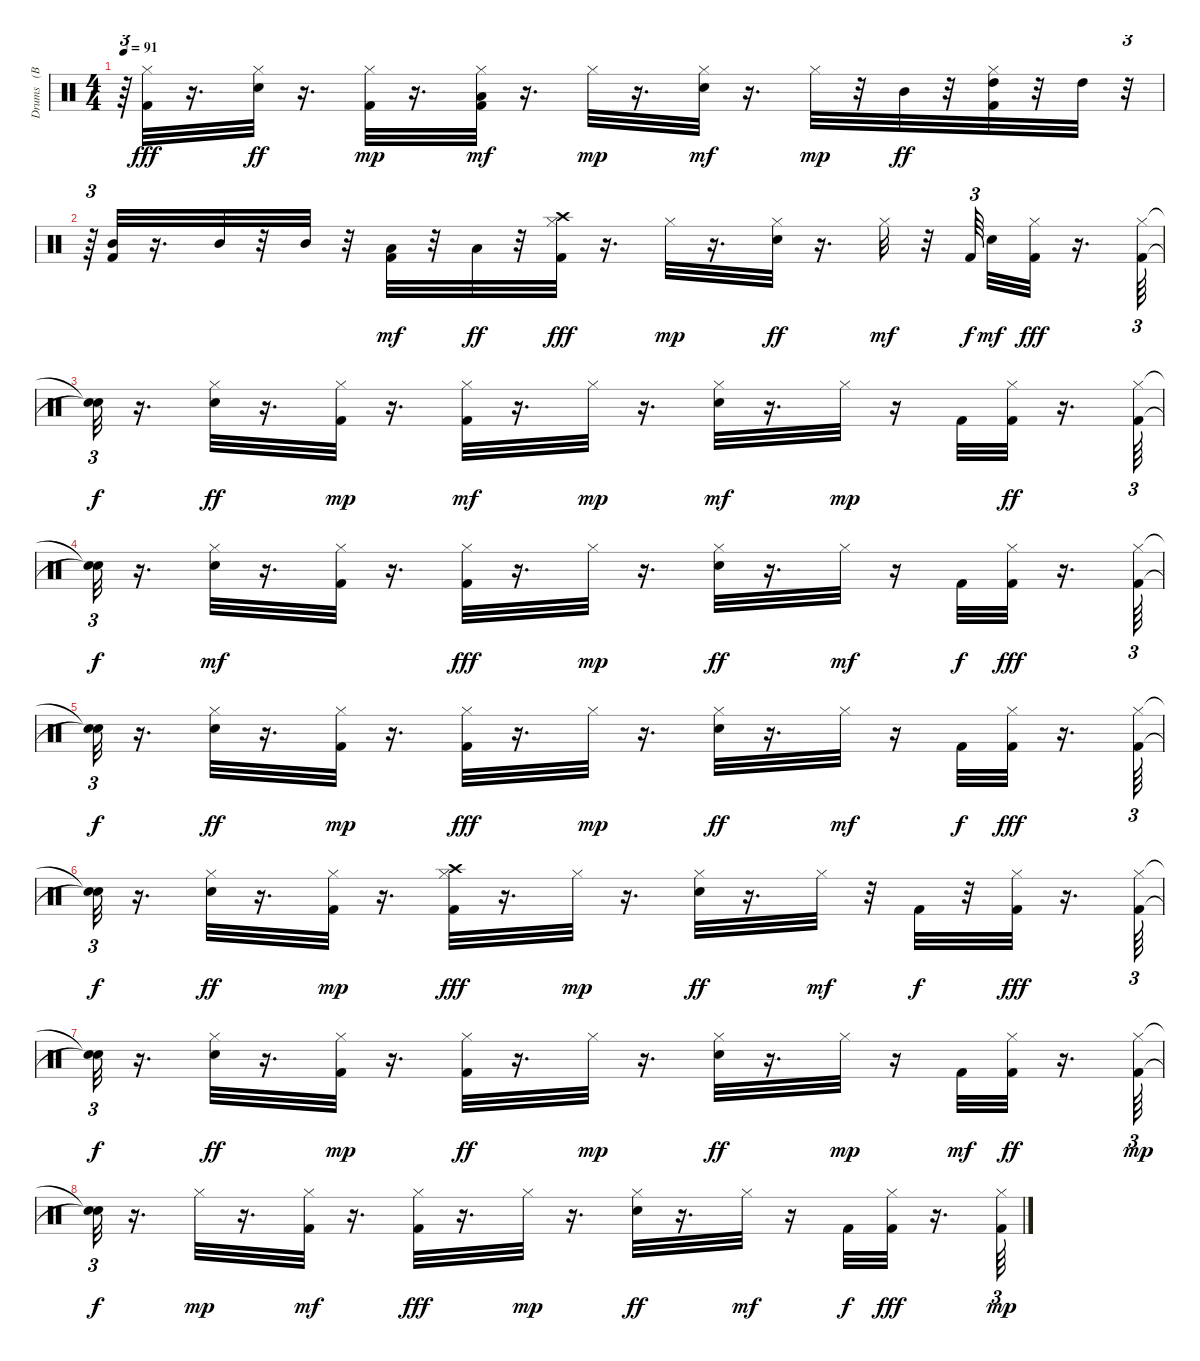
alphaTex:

\track ("Drums   (BB)" "Drums   (B") {instrument percussion}
\staff {score}
\articulation defaults
\ts (4 4)
\tempo 91
\clef neutral
\ks c
r.64{tu (3 2) dy fff} ("Hi-Hat (closed)" "Kick (hit) 2").32 r.16{d} ("Electric Snare (hit)" "Hi-Hat (closed)").32{dy ff} r.16{d} ("Kick (hit) 2" "Hi-Hat (closed)").32{dy mp} r.16{d} ("Kick (hit) 2" "Low Floor Tom (hit)" "Hi-Hat (closed)").32{dy mf} r.16{d} "Hi-Hat (closed)".32{dy mp} r.16{d} ("Hi-Hat (closed)" "Electric Snare (hit)").32{dy mf} r.16{d} "Hi-Hat (closed)".32{dy mp} r.32 "Mid Tom (hit)".32{dy ff} r.32 ("High Tom (hit)" "Hi-Hat (closed)" "Kick (hit) 2").32 r.32 "High Tom (hit)".32 r.32{tu (3 2)} |
r.64{tu (3 2)} ("Mid Tom (hit)" "Kick (hit) 2").32 r.16{d} "Mid Tom (hit)".32 r.32 "Mid Tom (hit)".32 r.32 ("Low Tom (hit)" "Kick (hit) 2").32{dy mf} r.32 "Low Floor Tom (hit)".32{dy ff} r.32 ("Hi-Hat (closed)" "Crash high (hit)" "Kick (hit) 2").32{dy fff} r.16{d} "Hi-Hat (closed)".32{dy mp} r.16{d} ("Electric Snare (hit)" "Hi-Hat (closed)").32{dy ff} r.16{d} "Hi-Hat (closed)".32{dy mf} r.32 "Kick (hit) 2".64{tu (3 2) dy f} "Electric Snare (hit)".32{dy mf} ("Hi-Hat (closed)" "Kick (hit) 2").32{dy fff} r.16{d} ("Hi-Hat (closed)" "Kick (hit) 2").64{tu (3 2)} |
("Snare (hit)"{t} "Snare (hit)"{t}).32{tu (3 2) dy f} r.16{d} ("Electric Snare (hit)" "Hi-Hat (closed)").32{dy ff} r.16{d} ("Hi-Hat (closed)" "Kick (hit) 2").32{dy mp} r.16{d} ("Kick (hit) 2" "Hi-Hat (closed)").32{dy mf} r.16{d} "Hi-Hat (closed)".32{dy mp} r.16{d} ("Hi-Hat (closed)" "Electric Snare (hit)").32{dy mf} r.16{d} "Hi-Hat (closed)".32{dy mp} r.16 "Kick (hit) 2".32 ("Hi-Hat (closed)" "Kick (hit) 2").32{dy ff} r.16{d} ("Hi-Hat (closed)" "Kick (hit) 2").64{tu (3 2)} |
("Snare (hit)"{t} "Snare (hit)"{t}).32{tu (3 2) dy f} r.16{d} ("Hi-Hat (closed)" "Electric Snare (hit)").32{dy mf} r.16{d} ("Hi-Hat (closed)" "Kick (hit) 2").32 r.16{d} ("Hi-Hat (closed)" "Kick (hit) 2").32{dy fff} r.16{d} "Hi-Hat (closed)".32{dy mp} r.16{d} ("Electric Snare (hit)" "Hi-Hat (closed)").32{dy ff} r.16{d} "Hi-Hat (closed)".32{dy mf} r.16 "Kick (hit) 2".32{dy f} ("Hi-Hat (closed)" "Kick (hit) 2").32{dy fff} r.16{d} ("Hi-Hat (closed)" "Kick (hit) 2").64{tu (3 2)} |
("Snare (hit)"{t} "Snare (hit)"{t}).32{tu (3 2) dy f} r.16{d} ("Electric Snare (hit)" "Hi-Hat (closed)").32{dy ff} r.16{d} ("Hi-Hat (closed)" "Kick (hit) 2").32{dy mp} r.16{d} ("Hi-Hat (closed)" "Kick (hit) 2").32{dy fff} r.16{d} "Hi-Hat (closed)".32{dy mp} r.16{d} ("Hi-Hat (closed)" "Electric Snare (hit)").32{dy ff} r.16{d} "Hi-Hat (closed)".32{dy mf} r.16 "Kick (hit) 2".32{dy f} ("Hi-Hat (closed)" "Kick (hit) 2").32{dy fff} r.16{d} ("Hi-Hat (closed)" "Kick (hit) 2").64{tu (3 2)} |
("Snare (hit)"{t} "Snare (hit)"{t}).32{tu (3 2) dy f} r.16{d} ("Electric Snare (hit)" "Hi-Hat (closed)").32{dy ff} r.16{d} ("Hi-Hat (closed)" "Kick (hit) 2").32{dy mp} r.16{d} ("Crash high (hit)" "Hi-Hat (closed)" "Kick (hit) 2").32{dy fff} r.16{d} "Hi-Hat (closed)".32{dy mp} r.16{d} ("Electric Snare (hit)" "Hi-Hat (closed)").32{dy ff} r.16{d} "Hi-Hat (closed)".32{dy mf} r.32 "Kick (hit) 2".32{dy f} r.32 ("Hi-Hat (closed)" "Kick (hit) 2").32{dy fff} r.16{d} ("Hi-Hat (closed)" "Kick (hit) 2").64{tu (3 2)} |
("Snare (hit)"{t} "Snare (hit)"{t}).32{tu (3 2) dy f} r.16{d} ("Electric Snare (hit)" "Hi-Hat (closed)").32{dy ff} r.16{d} ("Hi-Hat (closed)" "Kick (hit) 2").32{dy mp} r.16{d} ("Hi-Hat (closed)" "Kick (hit) 2").32{dy ff} r.16{d} "Hi-Hat (closed)".32{dy mp} r.16{d} ("Hi-Hat (closed)" "Electric Snare (hit)").32{dy ff} r.16{d} "Hi-Hat (closed)".32{dy mp} r.16 "Kick (hit) 2".32{dy mf} ("Kick (hit) 2" "Hi-Hat (closed)").32{dy ff} r.16{d} ("Kick (hit) 2" "Hi-Hat (closed)").64{tu (3 2) dy mp} |
("Snare (hit)"{t} "Snare (hit)"{t}).32{tu (3 2) dy f} r.16{d} "Hi-Hat (closed)".32{dy mp} r.16{d} ("Hi-Hat (closed)" "Kick (hit) 2").32{dy mf} r.16{d} ("Hi-Hat (closed)" "Kick (hit) 2").32{dy fff} r.16{d} "Hi-Hat (closed)".32{dy mp} r.16{d} ("Electric Snare (hit)" "Hi-Hat (closed)").32{dy ff} r.16{d} "Hi-Hat (closed)".32{dy mf} r.16 "Kick (hit) 2".32{dy f} ("Kick (hit) 2" "Hi-Hat (closed)").32{dy fff} r.16{d} ("Kick (hit) 2" "Hi-Hat (closed)").64{tu (3 2) dy mp}
